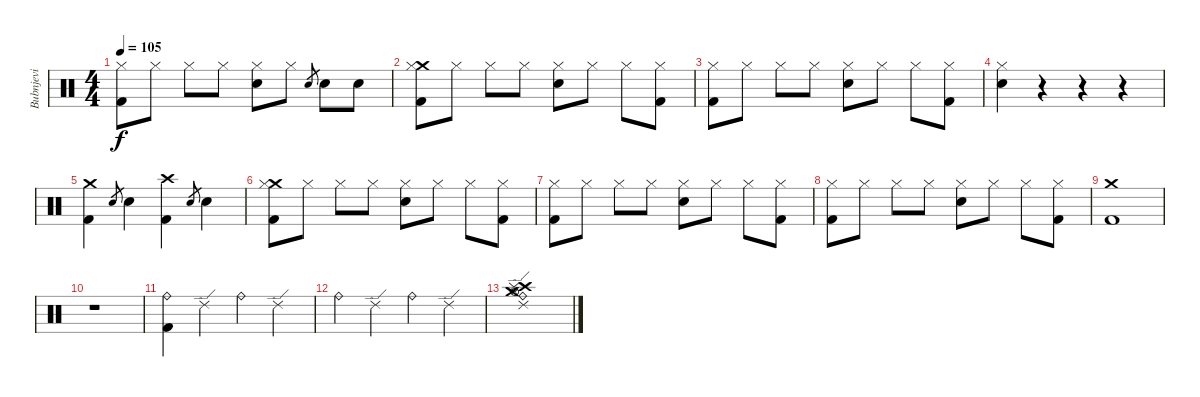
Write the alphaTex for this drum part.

\track ("Bubnjevi" "Bubnjevi") {instrument percussion}
\staff {score}
\articulation defaults
\ts (4 4)
\tempo 105
\clef neutral
\ks c
("Hi-Hat (closed)" "Kick (hit) 2").8{dy f} "Hi-Hat (closed)".8 "Hi-Hat (closed)".8 "Hi-Hat (closed)".8 ("Electric Snare (hit)" "Hi-Hat (closed)").8 "Hi-Hat (closed)".8 "Electric Snare (hit)".8{gr} "Electric Snare (hit)".8 "Electric Snare (hit)".8 |
("Crash medium (hit)" "Hi-Hat (closed)" "Kick (hit) 2").8 "Hi-Hat (closed)".8 "Hi-Hat (closed)".8 "Hi-Hat (closed)".8 ("Electric Snare (hit)" "Hi-Hat (closed)").8 "Hi-Hat (closed)".8 "Hi-Hat (closed)".8 ("Hi-Hat (closed)" "Kick (hit) 2").8 |
("Hi-Hat (closed)" "Kick (hit) 2").8 "Hi-Hat (closed)".8 "Hi-Hat (closed)".8 "Hi-Hat (closed)".8 ("Electric Snare (hit)" "Hi-Hat (closed)").8 "Hi-Hat (closed)".8 "Hi-Hat (closed)".8 ("Hi-Hat (closed)" "Kick (hit) 2").8 |
("Electric Snare (hit)" "Hi-Hat (closed)").4 r.4 r.4 r.4 |
("Crash medium (hit)" "Kick (hit) 2").4 "Electric Snare (hit)".8{gr} "Electric Snare (hit)".4 ("Crash high (hit)" "Kick (hit) 2").4 "Electric Snare (hit)".8{gr} "Electric Snare (hit)".4 |
("Crash medium (hit)" "Hi-Hat (closed)" "Kick (hit) 2").8 "Hi-Hat (closed)".8 "Hi-Hat (closed)".8 "Hi-Hat (closed)".8 ("Electric Snare (hit)" "Hi-Hat (closed)").8 "Hi-Hat (closed)".8 "Hi-Hat (closed)".8 ("Hi-Hat (closed)" "Kick (hit) 2").8 |
("Hi-Hat (closed)" "Kick (hit) 2").8 "Hi-Hat (closed)".8 "Hi-Hat (closed)".8 "Hi-Hat (closed)".8 ("Electric Snare (hit)" "Hi-Hat (closed)").8 "Hi-Hat (closed)".8 "Hi-Hat (closed)".8 ("Hi-Hat (closed)" "Kick (hit) 2").8 |
("Hi-Hat (closed)" "Kick (hit) 2").8 "Hi-Hat (closed)".8 "Hi-Hat (closed)".8 "Hi-Hat (closed)".8 ("Electric Snare (hit)" "Hi-Hat (closed)").8 "Hi-Hat (closed)".8 "Hi-Hat (closed)".8 ("Hi-Hat (closed)" "Kick (hit) 2").8 |
("Crash medium (hit)" "Kick (hit) 2").1 |
r.1 |
("Ride (bell)" "Kick (hit) 2").4 "Ride (edge) 2".4 "Ride (bell)".4 "Ride (edge) 2".4 |
"Ride (bell)".4 "Ride (edge) 2".4 "Ride (bell)".4 "Ride (edge) 2".4 |
("Ride (bell)" "Ride (edge) 2" "Crash medium (hit)" "Crash high (hit)" "Splash (hit)" "Hi-Hat (open)").1
